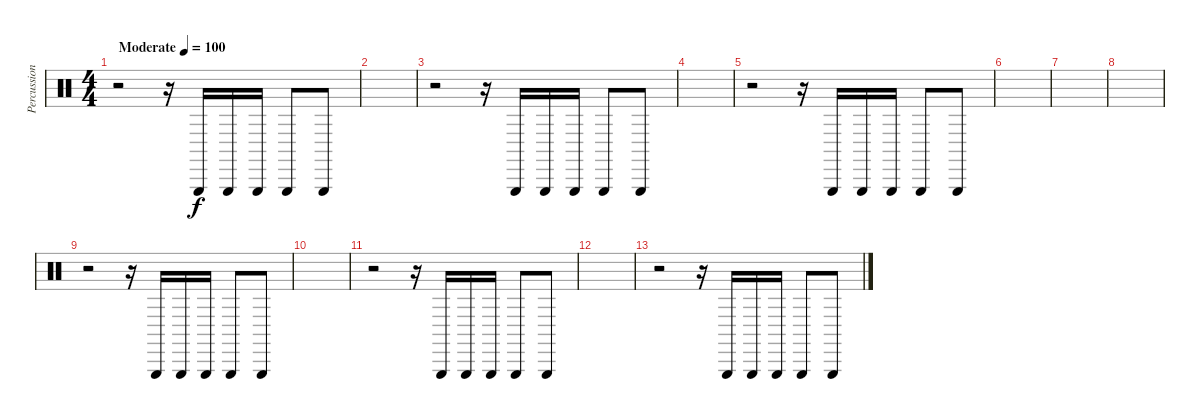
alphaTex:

\track ("Percussion" "Percussion") {instrument percussion}
\staff
\articulation defaults
\ts (4 4)
\tempo (100 "Moderate")
\clef neutral
\ks c
r.2{dy f} r.16 "Triangle (hit)".16 "Triangle (hit)".16 "Triangle (hit)".16 "Triangle (hit)".8 "Triangle (hit)".8 |
|
r.2 r.16 "Triangle (hit)".16 "Triangle (hit)".16 "Triangle (hit)".16 "Triangle (hit)".8 "Triangle (hit)".8 |
|
r.2 r.16 "Triangle (hit)".16 "Triangle (hit)".16 "Triangle (hit)".16 "Triangle (hit)".8 "Triangle (hit)".8 |
|
|
|
r.2 r.16 "Triangle (hit)".16 "Triangle (hit)".16 "Triangle (hit)".16 "Triangle (hit)".8 "Triangle (hit)".8 |
|
r.2 r.16 "Triangle (hit)".16 "Triangle (hit)".16 "Triangle (hit)".16 "Triangle (hit)".8 "Triangle (hit)".8 |
|
r.2 r.16 "Triangle (hit)".16 "Triangle (hit)".16 "Triangle (hit)".16 "Triangle (hit)".8 "Triangle (hit)".8
